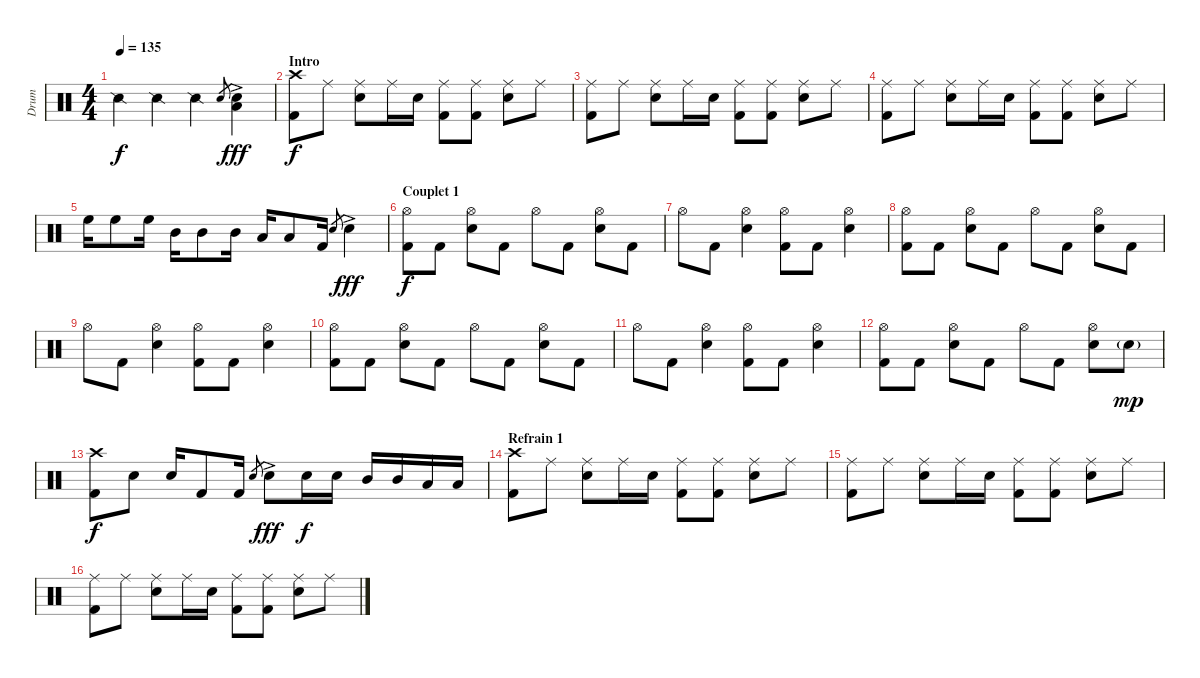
\track ("Drum" "Drum") {instrument percussion}
\staff {score}
\articulation defaults
\ts (4 4)
\tempo 135
\clef neutral
\ks c "Snare (side stick) 2".4{dy f} "Snare (side stick) 2".4 "Snare (side stick) 2".4 "Snare (hit) 2".8{gr}
("Low Tom (hit)" "Snare (hit) 2"{ac}).4{dy fff} |
\section ("" "Intro")
("Crash high (hit)" "Kick (hit) 2").8{dy f} "Ride (middle)".8 ("Ride (middle)" "Snare (hit) 2").8 "Ride (middle)".16 "Snare (hit) 2".16 ("Ride (middle)" "Kick (hit) 2").8 ("Ride (middle)" "Kick (hit) 2").8 ("Ride (middle)" "Snare (hit) 2").8 "Ride (middle)".8 |
("Ride (middle)" "Kick (hit) 2").8 "Ride (middle)".8 ("Ride (middle)" "Snare (hit) 2").8 "Ride (middle)".16 "Snare (hit) 2".16 ("Ride (middle)" "Kick (hit) 2").8 ("Ride (middle)" "Kick (hit) 2").8 ("Ride (middle)" "Snare (hit) 2").8 "Ride (middle)".8 |
("Ride (middle)" "Kick (hit) 2").8 "Ride (middle)".8 ("Ride (middle)" "Snare (hit) 2").8 "Ride (middle)".16 "Snare (hit) 2".16 ("Ride (middle)" "Kick (hit) 2").8 ("Ride (middle)" "Kick (hit) 2").8 ("Ride (middle)" "Snare (hit) 2").8 "Ride (middle)".8 |
"High Floor Tom (hit)".16 "High Floor Tom (hit)".8 "High Floor Tom (hit)".16 "Mid Tom (hit)".16 "Mid Tom (hit)".8 "Mid Tom (hit)".16 "Low Tom (hit)".16 "Low Tom (hit)".8 "Kick (hit) 2".16 "Snare (hit) 2".8{gr} "Snare (hit) 2"{ac}.4{dy fff} |
\section ("" "Couplet 1")
("Hi-Hat (open)" "Kick (hit) 2").8{dy f} "Kick (hit) 2".8 ("Hi-Hat (open)" "Snare (hit) 2").8 "Kick (hit) 2".8 "Hi-Hat (open)".8 "Kick (hit) 2".8 ("Hi-Hat (open)" "Snare (hit) 2").8 "Kick (hit) 2".8 |
"Hi-Hat (open)".8 "Kick (hit) 2".8 ("Hi-Hat (open)" "Snare (hit) 2").4 ("Hi-Hat (open)" "Kick (hit) 2").8 "Kick (hit) 2".8 ("Hi-Hat (open)" "Snare (hit) 2").4 |
("Hi-Hat (open)" "Kick (hit) 2").8 "Kick (hit) 2".8 ("Hi-Hat (open)" "Snare (hit) 2").8 "Kick (hit) 2".8 "Hi-Hat (open)".8 "Kick (hit) 2".8 ("Hi-Hat (open)" "Snare (hit) 2").8 "Kick (hit) 2".8 |
"Hi-Hat (open)".8 "Kick (hit) 2".8 ("Hi-Hat (open)" "Snare (hit) 2").4 ("Hi-Hat (open)" "Kick (hit) 2").8 "Kick (hit) 2".8 ("Hi-Hat (open)" "Snare (hit) 2").4 |
("Hi-Hat (open)" "Kick (hit) 2").8 "Kick (hit) 2".8 ("Hi-Hat (open)" "Snare (hit) 2").8 "Kick (hit) 2".8 "Hi-Hat (open)".8 "Kick (hit) 2".8 ("Hi-Hat (open)" "Snare (hit) 2").8 "Kick (hit) 2".8 |
"Hi-Hat (open)".8 "Kick (hit) 2".8 ("Hi-Hat (open)" "Snare (hit) 2").4 ("Hi-Hat (open)" "Kick (hit) 2").8 "Kick (hit) 2".8 ("Hi-Hat (open)" "Snare (hit) 2").4 |
("Hi-Hat (open)" "Kick (hit) 2").8 "Kick (hit) 2".8 ("Hi-Hat (open)" "Snare (hit) 2").8 "Kick (hit) 2".8 "Hi-Hat (open)".8 "Kick (hit) 2".8 ("Hi-Hat (open)" "Snare (hit) 2").8 "Snare (hit) 2"{g}.8{dy mp} |
("Crash high (hit)" "Kick (hit) 2").8{dy f} "Snare (hit) 2".8 "Snare (hit) 2".16 "Kick (hit) 2".8 "Kick (hit) 2".16 "Snare (hit) 2".8{gr} "Snare (hit) 2"{ac}.8{dy fff} "Snare (hit) 2".16{dy f} "Snare (hit) 2".16 "Mid Tom (hit)".16 "Mid Tom (hit)".16 "Low Tom (hit)".16 "Low Tom (hit)".16 |
\section ("" "Refrain 1")
("Crash high (hit)" "Kick (hit) 2").8 "Ride (middle)".8 ("Ride (middle)" "Snare (hit) 2").8 "Ride (middle)".16 "Snare (hit) 2".16 ("Ride (middle)" "Kick (hit) 2").8 ("Ride (middle)" "Kick (hit) 2").8 ("Ride (middle)" "Snare (hit) 2").8 "Ride (middle)".8 |
("Ride (middle)" "Kick (hit) 2").8 "Ride (middle)".8 ("Ride (middle)" "Snare (hit) 2").8 "Ride (middle)".16 "Snare (hit) 2".16 ("Ride (middle)" "Kick (hit) 2").8 ("Ride (middle)" "Kick (hit) 2").8 ("Ride (middle)" "Snare (hit) 2").8 "Ride (middle)".8 |
("Ride (middle)" "Kick (hit) 2").8 "Ride (middle)".8 ("Ride (middle)" "Snare (hit) 2").8 "Ride (middle)".16 "Snare (hit) 2".16 ("Ride (middle)" "Kick (hit) 2").8 ("Ride (middle)" "Kick (hit) 2").8 ("Ride (middle)" "Snare (hit) 2").8 "Ride (middle)".8
